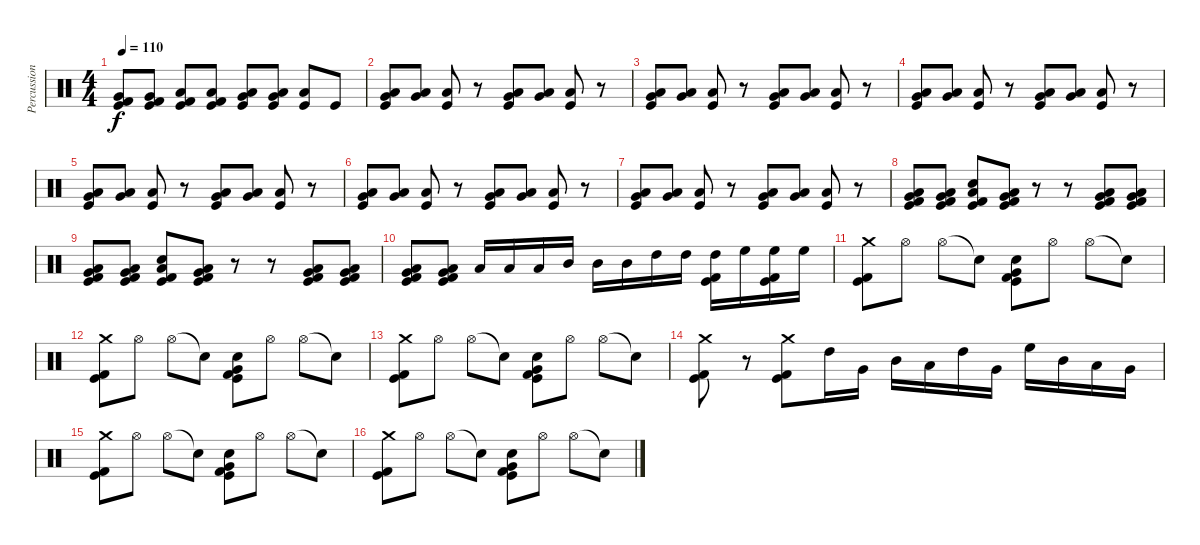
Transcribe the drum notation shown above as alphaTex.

\track ("Percussion" "Percussion") {instrument percussion}
\staff {score}
\articulation defaults
\ts (4 4)
\tempo 110
\clef neutral
\ks c
("Very Low Tom (hit)" "Kick (hit) 2" "Kick (hit)").8{dy f} ("Very Low Tom (hit)" "Kick (hit) 2" "Kick (hit)").8 ("Low Tom (hit)" "Kick (hit) 2" "Kick (hit)").8 ("Low Tom (hit)" "Kick (hit) 2" "Kick (hit)").8 ("Low Tom (hit)" "Very Low Tom (hit)" "Kick (hit)").8 ("Low Tom (hit)" "Very Low Tom (hit)" "Kick (hit)").8 ("Low Floor Tom (hit)" "Kick (hit)").8 "Kick (hit)".8 |
("Low Tom (hit)" "Very Low Tom (hit)" "Kick (hit)").8 ("Low Tom (hit)" "Very Low Tom (hit)").8 ("Low Floor Tom (hit)" "Kick (hit)").8 r.8 ("Low Tom (hit)" "Very Low Tom (hit)" "Kick (hit)").8 ("Low Tom (hit)" "Very Low Tom (hit)").8 ("Low Floor Tom (hit)" "Kick (hit)").8 r.8 |
("Low Tom (hit)" "Very Low Tom (hit)" "Kick (hit)").8 ("Low Tom (hit)" "Very Low Tom (hit)").8 ("Low Floor Tom (hit)" "Kick (hit)").8 r.8 ("Low Tom (hit)" "Very Low Tom (hit)" "Kick (hit)").8 ("Low Tom (hit)" "Very Low Tom (hit)").8 ("Low Floor Tom (hit)" "Kick (hit)").8 r.8 |
("Low Tom (hit)" "Very Low Tom (hit)" "Kick (hit)").8 ("Low Tom (hit)" "Very Low Tom (hit)").8 ("Low Floor Tom (hit)" "Kick (hit)").8 r.8 ("Low Tom (hit)" "Very Low Tom (hit)" "Kick (hit)").8 ("Low Tom (hit)" "Very Low Tom (hit)").8 ("Low Floor Tom (hit)" "Kick (hit)").8 r.8 |
("Low Tom (hit)" "Very Low Tom (hit)" "Kick (hit)").8 ("Low Tom (hit)" "Very Low Tom (hit)").8 ("Low Floor Tom (hit)" "Kick (hit)").8 r.8 ("Low Tom (hit)" "Very Low Tom (hit)" "Kick (hit)").8 ("Low Tom (hit)" "Very Low Tom (hit)").8 ("Low Floor Tom (hit)" "Kick (hit)").8 r.8 |
("Low Tom (hit)" "Very Low Tom (hit)" "Kick (hit)").8 ("Low Tom (hit)" "Very Low Tom (hit)").8 ("Low Floor Tom (hit)" "Kick (hit)").8 r.8 ("Low Tom (hit)" "Very Low Tom (hit)" "Kick (hit)").8 ("Low Tom (hit)" "Very Low Tom (hit)").8 ("Low Floor Tom (hit)" "Kick (hit)").8 r.8 |
("Low Tom (hit)" "Very Low Tom (hit)" "Kick (hit)").8 ("Low Tom (hit)" "Very Low Tom (hit)").8 ("Low Floor Tom (hit)" "Kick (hit)").8 r.8 ("Low Tom (hit)" "Very Low Tom (hit)" "Kick (hit)").8 ("Low Tom (hit)" "Very Low Tom (hit)").8 ("Low Floor Tom (hit)" "Kick (hit)").8 r.8 |
("Low Tom (hit)" "Very Low Tom (hit)" "Kick (hit) 2" "Kick (hit)").8 ("Low Tom (hit)" "Very Low Tom (hit)" "Kick (hit) 2" "Kick (hit)").8 ("Snare (hit) 2" "Low Tom (hit)" "Kick (hit) 2" "Kick (hit)").8 ("Low Tom (hit)" "Very Low Tom (hit)" "Kick (hit) 2" "Kick (hit)").8 r.8 r.8 ("Low Tom (hit)" "Very Low Tom (hit)" "Kick (hit) 2" "Kick (hit)").8 ("Low Tom (hit)" "Very Low Tom (hit)" "Kick (hit) 2" "Kick (hit)").8 |
("Low Tom (hit)" "Very Low Tom (hit)" "Kick (hit) 2" "Kick (hit)").8 ("Low Tom (hit)" "Very Low Tom (hit)" "Kick (hit) 2" "Kick (hit)").8 ("Snare (hit) 2" "Low Tom (hit)" "Kick (hit) 2" "Kick (hit)").8 ("Low Tom (hit)" "Very Low Tom (hit)" "Kick (hit) 2" "Kick (hit)").8 r.8 r.8 ("Low Tom (hit)" "Very Low Tom (hit)" "Kick (hit) 2" "Kick (hit)").8 ("Low Tom (hit)" "Very Low Tom (hit)" "Kick (hit) 2" "Kick (hit)").8 |
("Low Tom (hit)" "Very Low Tom (hit)" "Kick (hit) 2" "Kick (hit)").8 ("Low Tom (hit)" "Very Low Tom (hit)" "Kick (hit) 2" "Kick (hit)").8 "Low Tom (hit)".16 "Low Tom (hit)".16 "Low Tom (hit)".16 "Mid Tom (hit)".16 "Mid Tom (hit)".16 "Mid Tom (hit)".16 "High Tom (hit)".16 "High Tom (hit)".16 ("High Tom (hit)" "Kick (hit) 2" "Kick (hit)").16 "High Floor Tom (hit)".16 ("High Floor Tom (hit)" "Kick (hit) 2" "Kick (hit)").16 "High Floor Tom (hit)".16 |
("Crash medium (hit)" "Kick (hit) 2" "Kick (hit)").8 "Hi-Hat (open)".8 "Hi-Hat (open)".8 "Snare (hit)"{t}.8 ("Very Low Tom (hit)" "Snare (hit) 2" "Kick (hit) 2" "Kick (hit)").8 "Hi-Hat (open)".8 "Hi-Hat (open)".8 "Snare (hit)"{t}.8 |
("Crash medium (hit)" "Kick (hit) 2" "Kick (hit)").8 "Hi-Hat (open)".8 "Hi-Hat (open)".8 "Snare (hit)"{t}.8 ("Very Low Tom (hit)" "Snare (hit) 2" "Kick (hit) 2" "Kick (hit)").8 "Hi-Hat (open)".8 "Hi-Hat (open)".8 "Snare (hit)"{t}.8 |
("Crash medium (hit)" "Kick (hit) 2" "Kick (hit)").8 "Hi-Hat (open)".8 "Hi-Hat (open)".8 "Snare (hit)"{t}.8 ("Very Low Tom (hit)" "Snare (hit) 2" "Kick (hit) 2" "Kick (hit)").8 "Hi-Hat (open)".8 "Hi-Hat (open)".8 "Snare (hit)"{t}.8 |
("Crash medium (hit)" "Kick (hit) 2" "Kick (hit)").8 r.8 ("Crash medium (hit)" "Kick (hit) 2" "Kick (hit)").8 "High Tom (hit)".16 "Very Low Tom (hit)".16 "Mid Tom (hit)".16 "Low Tom (hit)".16 "High Tom (hit)".16 "Very Low Tom (hit)".16 "High Floor Tom (hit)".16 "Mid Tom (hit)".16 "Low Tom (hit)".16 "Very Low Tom (hit)".16 |
("Crash medium (hit)" "Kick (hit) 2" "Kick (hit)").8 "Hi-Hat (open)".8 "Hi-Hat (open)".8 "Snare (hit)"{t}.8 ("Very Low Tom (hit)" "Snare (hit) 2" "Kick (hit) 2" "Kick (hit)").8 "Hi-Hat (open)".8 "Hi-Hat (open)".8 "Snare (hit)"{t}.8 |
("Crash medium (hit)" "Kick (hit) 2" "Kick (hit)").8 "Hi-Hat (open)".8 "Hi-Hat (open)".8 "Snare (hit)"{t}.8 ("Very Low Tom (hit)" "Snare (hit) 2" "Kick (hit) 2" "Kick (hit)").8 "Hi-Hat (open)".8 "Hi-Hat (open)".8 "Snare (hit)"{t}.8
